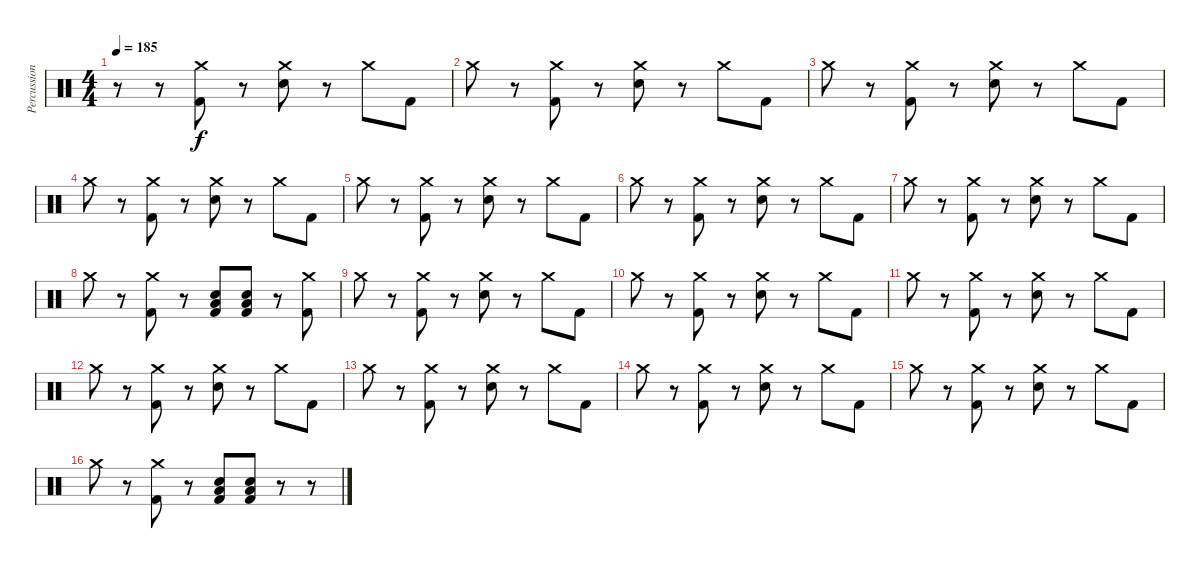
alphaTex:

\track ("Percussions" "Percussion") {instrument percussion}
\staff {score}
\articulation defaults
\ts (4 4)
\tempo 185
\clef neutral
\ks c
r.8{dy f} r.8 ("Kick (hit) 2" "Crash medium (hit)").8 r.8 ("Electric Snare (hit)" "Crash medium (hit)").8 r.8 "Crash medium (hit)".8 "Kick (hit) 2".8 |
"Crash medium (hit)".8 r.8 ("Kick (hit) 2" "Crash medium (hit)").8 r.8 ("Electric Snare (hit)" "Crash medium (hit)").8 r.8 "Crash medium (hit)".8 "Kick (hit) 2".8 |
"Crash medium (hit)".8 r.8 ("Kick (hit) 2" "Crash medium (hit)").8 r.8 ("Electric Snare (hit)" "Crash medium (hit)").8 r.8 "Crash medium (hit)".8 "Kick (hit) 2".8 |
"Crash medium (hit)".8 r.8 ("Kick (hit) 2" "Crash medium (hit)").8 r.8 ("Electric Snare (hit)" "Crash medium (hit)").8 r.8 "Crash medium (hit)".8 "Kick (hit) 2".8 |
"Crash medium (hit)".8 r.8 ("Kick (hit) 2" "Crash medium (hit)").8 r.8 ("Electric Snare (hit)" "Crash medium (hit)").8 r.8 "Crash medium (hit)".8 "Kick (hit) 2".8 |
"Crash medium (hit)".8 r.8 ("Kick (hit) 2" "Crash medium (hit)").8 r.8 ("Electric Snare (hit)" "Crash medium (hit)").8 r.8 "Crash medium (hit)".8 "Kick (hit) 2".8 |
"Crash medium (hit)".8 r.8 ("Kick (hit) 2" "Crash medium (hit)").8 r.8 ("Electric Snare (hit)" "Crash medium (hit)").8 r.8 "Crash medium (hit)".8 "Kick (hit) 2".8 |
"Crash medium (hit)".8 r.8 ("Kick (hit) 2" "Crash medium (hit)").8 r.8 ("Kick (hit) 2" "Electric Snare (hit)" "Low Tom (hit)").8 ("Kick (hit) 2" "Electric Snare (hit)" "Low Tom (hit)").8 r.8 ("Kick (hit) 2" "Crash medium (hit)").8 |
"Crash medium (hit)".8 r.8 ("Kick (hit) 2" "Crash medium (hit)").8 r.8 ("Electric Snare (hit)" "Crash medium (hit)").8 r.8 "Crash medium (hit)".8 "Kick (hit) 2".8 |
"Crash medium (hit)".8 r.8 ("Kick (hit) 2" "Crash medium (hit)").8 r.8 ("Electric Snare (hit)" "Crash medium (hit)").8 r.8 "Crash medium (hit)".8 "Kick (hit) 2".8 |
"Crash medium (hit)".8 r.8 ("Kick (hit) 2" "Crash medium (hit)").8 r.8 ("Electric Snare (hit)" "Crash medium (hit)").8 r.8 "Crash medium (hit)".8 "Kick (hit) 2".8 |
"Crash medium (hit)".8 r.8 ("Kick (hit) 2" "Crash medium (hit)").8 r.8 ("Electric Snare (hit)" "Crash medium (hit)").8 r.8 "Crash medium (hit)".8 "Kick (hit) 2".8 |
"Crash medium (hit)".8 r.8 ("Kick (hit) 2" "Crash medium (hit)").8 r.8 ("Electric Snare (hit)" "Crash medium (hit)").8 r.8 "Crash medium (hit)".8 "Kick (hit) 2".8 |
"Crash medium (hit)".8 r.8 ("Kick (hit) 2" "Crash medium (hit)").8 r.8 ("Electric Snare (hit)" "Crash medium (hit)").8 r.8 "Crash medium (hit)".8 "Kick (hit) 2".8 |
"Crash medium (hit)".8 r.8 ("Kick (hit) 2" "Crash medium (hit)").8 r.8 ("Electric Snare (hit)" "Crash medium (hit)").8 r.8 "Crash medium (hit)".8 "Kick (hit) 2".8 |
"Crash medium (hit)".8 r.8 ("Kick (hit) 2" "Crash medium (hit)").8 r.8 ("Kick (hit) 2" "Electric Snare (hit)" "Low Tom (hit)").8 ("Kick (hit) 2" "Electric Snare (hit)" "Low Tom (hit)").8 r.8 r.8
